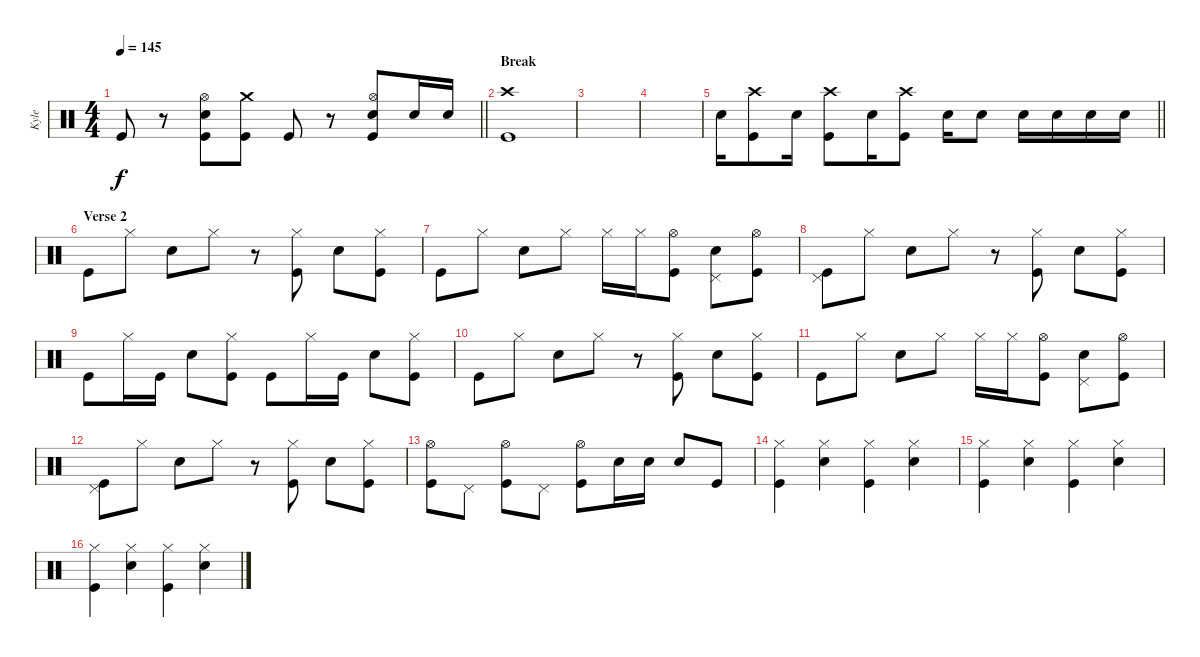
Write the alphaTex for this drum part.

\track ("Kyle" "Kyle") {instrument percussion}
\staff {score}
\articulation defaults
\ts (4 4)
\tempo 145
\clef neutral
\barLineRight lightlight
\ks c "Kick (hit)".8{dy f}
r.8 ("Hi-Hat (open)" "Kick (hit)" "Electric Snare (hit)").8 ("Crash medium (hit)" "Kick (hit)").8 "Kick (hit)".8 r.8 ("Hi-Hat (open)" "Kick (hit)" "Electric Snare (hit)").8 "Electric Snare (hit)".16 "Electric Snare (hit)".16 |
\section ("" "Break")
("Crash high (hit)" "Kick (hit)").1 |
|
|
\barLineRight lightlight "Electric Snare (hit)".16
("Kick (hit)" "Crash high (hit)").8 "Electric Snare (hit)".16 ("Kick (hit)" "Crash high (hit)").8 "Electric Snare (hit)".16 ("Kick (hit)" "Crash high (hit)").8 "Electric Snare (hit)".16 "Electric Snare (hit)".8 "Electric Snare (hit)".16 "Electric Snare (hit)".16 "Electric Snare (hit)".16 "Electric Snare (hit)".16 |
\section ("" "Verse 2")
"Kick (hit)".8 "Hi-Hat (closed)".8 "Electric Snare (hit)".8 "Hi-Hat (closed)".8 r.8 ("Hi-Hat (closed)" "Kick (hit)").8 "Electric Snare (hit)".8 ("Hi-Hat (closed)" "Kick (hit)").8 |
"Kick (hit)".8 "Hi-Hat (closed)".8 "Electric Snare (hit)".8 "Hi-Hat (closed)".8 "Hi-Hat (closed)".16 "Hi-Hat (closed)".16 ("Hi-Hat (open)" "Kick (hit)").8 ("Pedal Hi-Hat (hit)" "Electric Snare (hit)").8 ("Hi-Hat (open)" "Kick (hit)").8 |
("Pedal Hi-Hat (hit)" "Kick (hit)").8 "Hi-Hat (closed)".8 "Electric Snare (hit)".8 "Hi-Hat (closed)".8 r.8 ("Hi-Hat (closed)" "Kick (hit)").8 "Electric Snare (hit)".8 ("Hi-Hat (closed)" "Kick (hit)").8 |
"Kick (hit)".8 "Hi-Hat (closed)".16 "Kick (hit)".16 "Electric Snare (hit)".8 ("Hi-Hat (closed)" "Kick (hit)").8 "Kick (hit)".8 "Hi-Hat (closed)".16 "Kick (hit)".16 "Electric Snare (hit)".8 ("Hi-Hat (closed)" "Kick (hit)").8 |
"Kick (hit)".8 "Hi-Hat (closed)".8 "Electric Snare (hit)".8 "Hi-Hat (closed)".8 r.8 ("Hi-Hat (closed)" "Kick (hit)").8 "Electric Snare (hit)".8 ("Hi-Hat (closed)" "Kick (hit)").8 |
"Kick (hit)".8 "Hi-Hat (closed)".8 "Electric Snare (hit)".8 "Hi-Hat (closed)".8 "Hi-Hat (closed)".16 "Hi-Hat (closed)".16 ("Hi-Hat (open)" "Kick (hit)").8 ("Pedal Hi-Hat (hit)" "Electric Snare (hit)").8 ("Hi-Hat (open)" "Kick (hit)").8 |
("Pedal Hi-Hat (hit)" "Kick (hit)").8 "Hi-Hat (closed)".8 "Electric Snare (hit)".8 "Hi-Hat (closed)".8 r.8 ("Hi-Hat (closed)" "Kick (hit)").8 "Electric Snare (hit)".8 ("Hi-Hat (closed)" "Kick (hit)").8 |
("Hi-Hat (open)" "Kick (hit)").8 "Pedal Hi-Hat (hit)".8 ("Hi-Hat (open)" "Kick (hit)").8 "Pedal Hi-Hat (hit)".8 ("Hi-Hat (open)" "Kick (hit)").8 "Electric Snare (hit)".16 "Electric Snare (hit)".16 "Electric Snare (hit)".8 "Kick (hit)".8 |
("Hi-Hat (closed)" "Kick (hit)").4 ("Hi-Hat (closed)" "Electric Snare (hit)").4 ("Hi-Hat (closed)" "Kick (hit)").4 ("Hi-Hat (closed)" "Electric Snare (hit)").4 |
("Hi-Hat (closed)" "Kick (hit)").4 ("Hi-Hat (closed)" "Electric Snare (hit)").4 ("Hi-Hat (closed)" "Kick (hit)").4 ("Hi-Hat (closed)" "Electric Snare (hit)").4 |
("Hi-Hat (closed)" "Kick (hit)").4 ("Hi-Hat (closed)" "Electric Snare (hit)").4 ("Hi-Hat (closed)" "Kick (hit)").4 ("Hi-Hat (closed)" "Electric Snare (hit)").4
